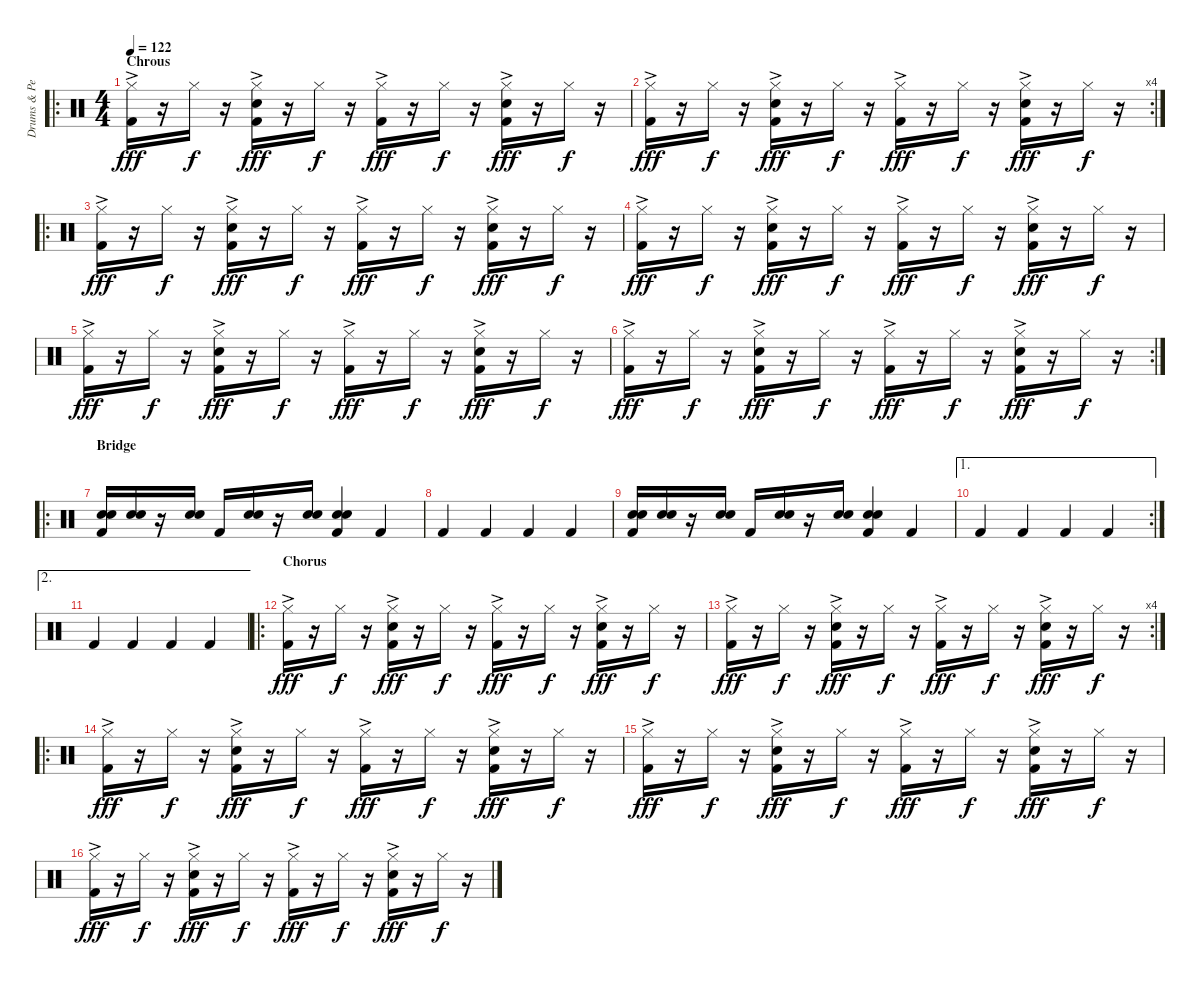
\track ("Drums & Percussion" "Drums & Pe") {instrument percussion}
\staff {score}
\articulation defaults
\ro
\ts (4 4)
\section ("" "Chrous")
\tempo 122
\clef neutral
\ks c
("Hi-Hat (closed)"{ac} "Kick (hit) 2").16{dy fff} r.16 "Hi-Hat (closed)".16{dy f} r.16 ("Hi-Hat (closed)"{ac} "Electric Snare (hit)" "Kick (hit) 2").16{dy fff} r.16 "Hi-Hat (closed)".16{dy f} r.16 ("Hi-Hat (closed)"{ac} "Kick (hit) 2").16{dy fff} r.16 "Hi-Hat (closed)".16{dy f} r.16 ("Hi-Hat (closed)"{ac} "Electric Snare (hit)" "Kick (hit) 2").16{dy fff} r.16 "Hi-Hat (closed)".16{dy f} r.16 |
\rc 4
("Hi-Hat (closed)"{ac} "Kick (hit) 2").16{dy fff} r.16 "Hi-Hat (closed)".16{dy f} r.16 ("Hi-Hat (closed)"{ac} "Electric Snare (hit)" "Kick (hit) 2").16{dy fff} r.16 "Hi-Hat (closed)".16{dy f} r.16 ("Hi-Hat (closed)"{ac} "Kick (hit) 2").16{dy fff} r.16 "Hi-Hat (closed)".16{dy f} r.16 ("Hi-Hat (closed)"{ac} "Electric Snare (hit)" "Kick (hit) 2").16{dy fff} r.16 "Hi-Hat (closed)".16{dy f} r.16 |
\ro
("Hi-Hat (closed)"{ac} "Kick (hit) 2").16{dy fff} r.16 "Hi-Hat (closed)".16{dy f} r.16 ("Hi-Hat (closed)"{ac} "Electric Snare (hit)" "Kick (hit) 2").16{dy fff} r.16 "Hi-Hat (closed)".16{dy f} r.16 ("Hi-Hat (closed)"{ac} "Kick (hit) 2").16{dy fff} r.16 "Hi-Hat (closed)".16{dy f} r.16 ("Hi-Hat (closed)"{ac} "Electric Snare (hit)" "Kick (hit) 2").16{dy fff} r.16 "Hi-Hat (closed)".16{dy f} r.16 |
("Hi-Hat (closed)"{ac} "Kick (hit) 2").16{dy fff} r.16 "Hi-Hat (closed)".16{dy f} r.16 ("Hi-Hat (closed)"{ac} "Electric Snare (hit)" "Kick (hit) 2").16{dy fff} r.16 "Hi-Hat (closed)".16{dy f} r.16 ("Hi-Hat (closed)"{ac} "Kick (hit) 2").16{dy fff} r.16 "Hi-Hat (closed)".16{dy f} r.16 ("Hi-Hat (closed)"{ac} "Electric Snare (hit)" "Kick (hit) 2").16{dy fff} r.16 "Hi-Hat (closed)".16{dy f} r.16 |
("Hi-Hat (closed)"{ac} "Kick (hit) 2").16{dy fff} r.16 "Hi-Hat (closed)".16{dy f} r.16 ("Hi-Hat (closed)"{ac} "Electric Snare (hit)" "Kick (hit) 2").16{dy fff} r.16 "Hi-Hat (closed)".16{dy f} r.16 ("Hi-Hat (closed)"{ac} "Kick (hit) 2").16{dy fff} r.16 "Hi-Hat (closed)".16{dy f} r.16 ("Hi-Hat (closed)"{ac} "Electric Snare (hit)" "Kick (hit) 2").16{dy fff} r.16 "Hi-Hat (closed)".16{dy f} r.16 |
\rc 2
("Hi-Hat (closed)"{ac} "Kick (hit) 2").16{dy fff} r.16 "Hi-Hat (closed)".16{dy f} r.16 ("Hi-Hat (closed)"{ac} "Electric Snare (hit)" "Kick (hit) 2").16{dy fff} r.16 "Hi-Hat (closed)".16{dy f} r.16 ("Hi-Hat (closed)"{ac} "Kick (hit) 2").16{dy fff} r.16 "Hi-Hat (closed)".16{dy f} r.16 ("Hi-Hat (closed)"{ac} "Electric Snare (hit)" "Kick (hit) 2").16{dy fff} r.16 "Hi-Hat (closed)".16{dy f} r.16 |
\ro
\section ("" "Bridge")
("Electric Snare (hit)" "Electric Snare (hit)" "Kick (hit) 2").16 ("Electric Snare (hit)" "Electric Snare (hit)").16 r.16 ("Electric Snare (hit)" "Electric Snare (hit)").16 "Kick (hit) 2".16 ("Electric Snare (hit)" "Electric Snare (hit)").16 r.16 ("Electric Snare (hit)" "Electric Snare (hit)").16 ("Electric Snare (hit)" "Electric Snare (hit)" "Kick (hit) 2").4 "Kick (hit) 2".4 |
"Kick (hit) 2".4 "Kick (hit) 2".4 "Kick (hit) 2".4 "Kick (hit) 2".4 |
("Electric Snare (hit)" "Electric Snare (hit)" "Kick (hit) 2").16 ("Electric Snare (hit)" "Electric Snare (hit)").16 r.16 ("Electric Snare (hit)" "Electric Snare (hit)").16 "Kick (hit) 2".16 ("Electric Snare (hit)" "Electric Snare (hit)").16 r.16 ("Electric Snare (hit)" "Electric Snare (hit)").16 ("Electric Snare (hit)" "Electric Snare (hit)" "Kick (hit) 2").4 "Kick (hit) 2".4 |
\ae 1
\rc 2 "Kick (hit) 2".4 "Kick (hit) 2".4 "Kick (hit) 2".4 "Kick (hit) 2".4
|
\ae 2 "Kick (hit) 2".4 "Kick (hit) 2".4 "Kick (hit) 2".4 "Kick (hit) 2".4
|
\ro
\section ("" "Chorus")
("Hi-Hat (closed)"{ac} "Kick (hit) 2").16{dy fff} r.16 "Hi-Hat (closed)".16{dy f} r.16 ("Hi-Hat (closed)"{ac} "Electric Snare (hit)" "Kick (hit) 2").16{dy fff} r.16 "Hi-Hat (closed)".16{dy f} r.16 ("Hi-Hat (closed)"{ac} "Kick (hit) 2").16{dy fff} r.16 "Hi-Hat (closed)".16{dy f} r.16 ("Hi-Hat (closed)"{ac} "Electric Snare (hit)" "Kick (hit) 2").16{dy fff} r.16 "Hi-Hat (closed)".16{dy f} r.16 |
\rc 4
("Hi-Hat (closed)"{ac} "Kick (hit) 2").16{dy fff} r.16 "Hi-Hat (closed)".16{dy f} r.16 ("Hi-Hat (closed)"{ac} "Electric Snare (hit)" "Kick (hit) 2").16{dy fff} r.16 "Hi-Hat (closed)".16{dy f} r.16 ("Hi-Hat (closed)"{ac} "Kick (hit) 2").16{dy fff} r.16 "Hi-Hat (closed)".16{dy f} r.16 ("Hi-Hat (closed)"{ac} "Electric Snare (hit)" "Kick (hit) 2").16{dy fff} r.16 "Hi-Hat (closed)".16{dy f} r.16 |
\ro
("Hi-Hat (closed)"{ac} "Kick (hit) 2").16{dy fff} r.16 "Hi-Hat (closed)".16{dy f} r.16 ("Hi-Hat (closed)"{ac} "Electric Snare (hit)" "Kick (hit) 2").16{dy fff} r.16 "Hi-Hat (closed)".16{dy f} r.16 ("Hi-Hat (closed)"{ac} "Kick (hit) 2").16{dy fff} r.16 "Hi-Hat (closed)".16{dy f} r.16 ("Hi-Hat (closed)"{ac} "Electric Snare (hit)" "Kick (hit) 2").16{dy fff} r.16 "Hi-Hat (closed)".16{dy f} r.16 |
("Hi-Hat (closed)"{ac} "Kick (hit) 2").16{dy fff} r.16 "Hi-Hat (closed)".16{dy f} r.16 ("Hi-Hat (closed)"{ac} "Electric Snare (hit)" "Kick (hit) 2").16{dy fff} r.16 "Hi-Hat (closed)".16{dy f} r.16 ("Hi-Hat (closed)"{ac} "Kick (hit) 2").16{dy fff} r.16 "Hi-Hat (closed)".16{dy f} r.16 ("Hi-Hat (closed)"{ac} "Electric Snare (hit)" "Kick (hit) 2").16{dy fff} r.16 "Hi-Hat (closed)".16{dy f} r.16 |
("Hi-Hat (closed)"{ac} "Kick (hit) 2").16{dy fff} r.16 "Hi-Hat (closed)".16{dy f} r.16 ("Hi-Hat (closed)"{ac} "Electric Snare (hit)" "Kick (hit) 2").16{dy fff} r.16 "Hi-Hat (closed)".16{dy f} r.16 ("Hi-Hat (closed)"{ac} "Kick (hit) 2").16{dy fff} r.16 "Hi-Hat (closed)".16{dy f} r.16 ("Hi-Hat (closed)"{ac} "Electric Snare (hit)" "Kick (hit) 2").16{dy fff} r.16 "Hi-Hat (closed)".16{dy f} r.16
